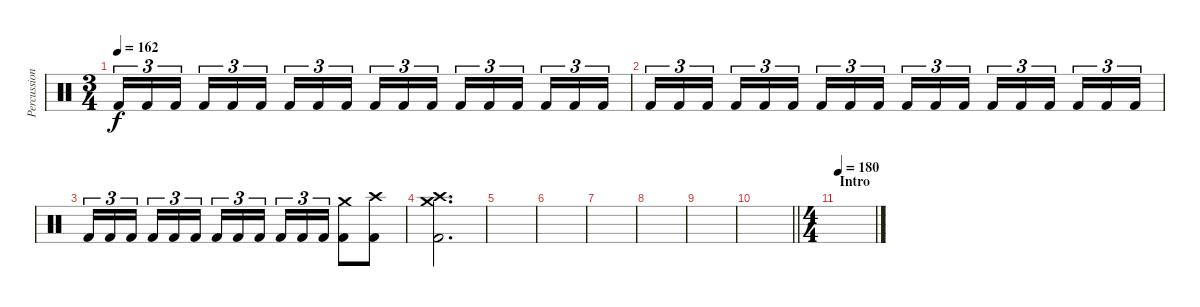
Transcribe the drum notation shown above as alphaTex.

\track ("Percussion" "Percussion") {instrument percussion}
\staff {score}
\articulation defaults
\ts (3 4)
\tempo 162
\clef neutral
\ks c "Kick (hit) 2".16{tu (3 2) dy f} "Kick (hit) 2".16{tu (3 2)} "Kick (hit) 2".16{tu (3 2) beam splitsecondary} "Kick (hit) 2".16{tu (3 2)} "Kick (hit) 2".16{tu (3 2)} "Kick (hit) 2".16{tu (3 2)} "Kick (hit) 2".16{tu (3 2)} "Kick (hit) 2".16{tu (3 2)} "Kick (hit) 2".16{tu (3 2) beam splitsecondary} "Kick (hit) 2".16{tu (3 2)} "Kick (hit) 2".16{tu (3 2)} "Kick (hit) 2".16{tu (3 2)} "Kick (hit) 2".16{tu (3 2)} "Kick (hit) 2".16{tu (3 2)} "Kick (hit) 2".16{tu (3 2) beam splitsecondary} "Kick (hit) 2".16{tu (3 2)} "Kick (hit) 2".16{tu (3 2)} "Kick (hit) 2".16{tu (3 2)}
|
"Kick (hit) 2".16{tu (3 2)} "Kick (hit) 2".16{tu (3 2)} "Kick (hit) 2".16{tu (3 2) beam splitsecondary} "Kick (hit) 2".16{tu (3 2)} "Kick (hit) 2".16{tu (3 2)} "Kick (hit) 2".16{tu (3 2)} "Kick (hit) 2".16{tu (3 2)} "Kick (hit) 2".16{tu (3 2)} "Kick (hit) 2".16{tu (3 2) beam splitsecondary} "Kick (hit) 2".16{tu (3 2)} "Kick (hit) 2".16{tu (3 2)} "Kick (hit) 2".16{tu (3 2)} "Kick (hit) 2".16{tu (3 2)} "Kick (hit) 2".16{tu (3 2)} "Kick (hit) 2".16{tu (3 2) beam splitsecondary} "Kick (hit) 2".16{tu (3 2)} "Kick (hit) 2".16{tu (3 2)} "Kick (hit) 2".16{tu (3 2)} |
"Kick (hit) 2".16{tu (3 2)} "Kick (hit) 2".16{tu (3 2)} "Kick (hit) 2".16{tu (3 2) beam splitsecondary} "Kick (hit) 2".16{tu (3 2)} "Kick (hit) 2".16{tu (3 2)} "Kick (hit) 2".16{tu (3 2)} "Kick (hit) 2".16{tu (3 2)} "Kick (hit) 2".16{tu (3 2)} "Kick (hit) 2".16{tu (3 2) beam splitsecondary} "Kick (hit) 2".16{tu (3 2)} "Kick (hit) 2".16{tu (3 2)} "Kick (hit) 2".16{tu (3 2)} ("Crash medium (hit)" "Kick (hit) 2").8 ("Crash high (hit)" "Kick (hit) 2").8 |
("Crash medium (hit)" "Crash high (hit)" "Kick (hit) 2").2{d} |
|
|
|
|
|
\barLineRight lightlight
|
\ts (4 4)
\section ("" "Intro")
\tempo 180
